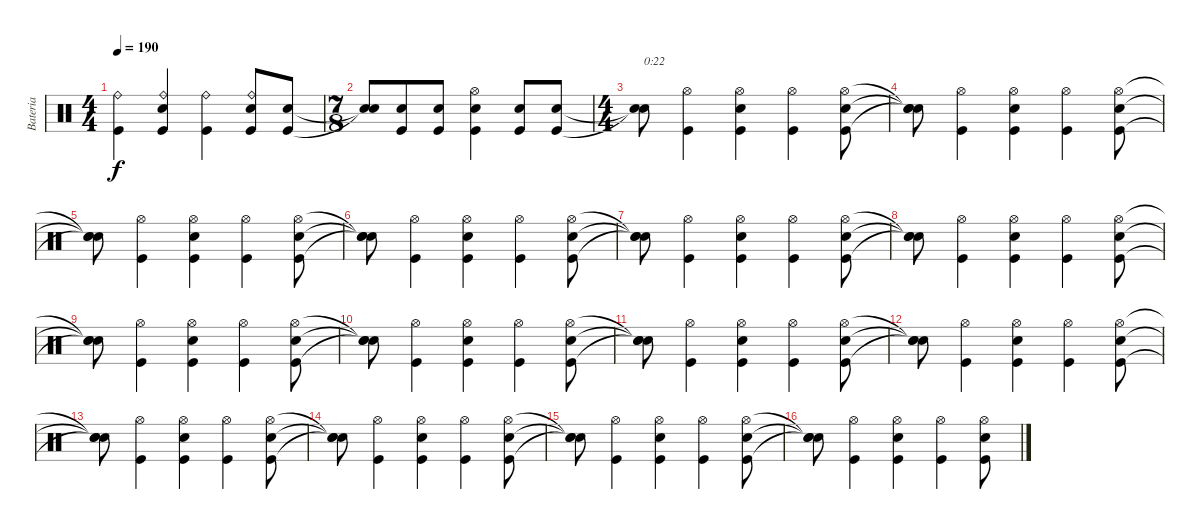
\track ("Bateria" "Bateria") {instrument percussion}
\staff {score}
\articulation defaults
\ts (4 4)
\tempo 190
\clef neutral
\ks c
("Kick (hit)" "Ride (bell)").4{dy f} ("Kick (hit)" "Snare (hit) 2" "Ride (bell)").4 ("Kick (hit)" "Ride (bell)").4 ("Kick (hit)" "Snare (hit) 2" "Ride (bell)").8 ("Kick (hit)" "Snare (hit) 2").8 |
\ts (7 8)
("Snare (hit)"{t} "Snare (hit)"{t}).8 ("Kick (hit)" "Snare (hit) 2").8 ("Kick (hit)" "Snare (hit) 2").8 ("Kick (hit)" "Snare (hit) 2" "Hi-Hat (open)").4 ("Kick (hit)" "Snare (hit) 2").8 ("Kick (hit)" "Snare (hit) 2").8 |
\ts (4 4)
("Snare (hit)"{t} "Snare (hit)"{t}).8{txt "0:22"} ("Kick (hit)" "Hi-Hat (open)").4 ("Kick (hit)" "Snare (hit) 2" "Hi-Hat (open)").4 ("Kick (hit)" "Hi-Hat (open)").4 ("Kick (hit)" "Snare (hit) 2" "Hi-Hat (open)").8 |
("Snare (hit)"{t} "Snare (hit)"{t} "Snare (hit)"{t}).8 ("Kick (hit)" "Hi-Hat (open)").4 ("Kick (hit)" "Snare (hit) 2" "Hi-Hat (open)").4 ("Kick (hit)" "Hi-Hat (open)").4 ("Kick (hit)" "Snare (hit) 2" "Hi-Hat (open)").8 |
("Snare (hit)"{t} "Snare (hit)"{t} "Snare (hit)"{t}).8 ("Kick (hit)" "Hi-Hat (open)").4 ("Kick (hit)" "Snare (hit) 2" "Hi-Hat (open)").4 ("Kick (hit)" "Hi-Hat (open)").4 ("Kick (hit)" "Snare (hit) 2" "Hi-Hat (open)").8 |
("Snare (hit)"{t} "Snare (hit)"{t} "Snare (hit)"{t}).8 ("Kick (hit)" "Hi-Hat (open)").4 ("Kick (hit)" "Snare (hit) 2" "Hi-Hat (open)").4 ("Kick (hit)" "Hi-Hat (open)").4 ("Kick (hit)" "Snare (hit) 2" "Hi-Hat (open)").8 |
("Snare (hit)"{t} "Snare (hit)"{t} "Snare (hit)"{t}).8 ("Kick (hit)" "Hi-Hat (open)").4 ("Kick (hit)" "Snare (hit) 2" "Hi-Hat (open)").4 ("Kick (hit)" "Hi-Hat (open)").4 ("Kick (hit)" "Snare (hit) 2" "Hi-Hat (open)").8 |
("Snare (hit)"{t} "Snare (hit)"{t} "Snare (hit)"{t}).8 ("Kick (hit)" "Hi-Hat (open)").4 ("Kick (hit)" "Snare (hit) 2" "Hi-Hat (open)").4 ("Kick (hit)" "Hi-Hat (open)").4 ("Kick (hit)" "Snare (hit) 2" "Hi-Hat (open)").8 |
("Snare (hit)"{t} "Snare (hit)"{t} "Snare (hit)"{t}).8 ("Kick (hit)" "Hi-Hat (open)").4 ("Kick (hit)" "Snare (hit) 2" "Hi-Hat (open)").4 ("Kick (hit)" "Hi-Hat (open)").4 ("Kick (hit)" "Snare (hit) 2" "Hi-Hat (open)").8 |
("Snare (hit)"{t} "Snare (hit)"{t} "Snare (hit)"{t}).8 ("Kick (hit)" "Hi-Hat (open)").4 ("Kick (hit)" "Snare (hit) 2" "Hi-Hat (open)").4 ("Kick (hit)" "Hi-Hat (open)").4 ("Kick (hit)" "Snare (hit) 2" "Hi-Hat (open)").8 |
("Snare (hit)"{t} "Snare (hit)"{t} "Snare (hit)"{t}).8 ("Kick (hit)" "Hi-Hat (open)").4 ("Kick (hit)" "Snare (hit) 2" "Hi-Hat (open)").4 ("Kick (hit)" "Hi-Hat (open)").4 ("Kick (hit)" "Snare (hit) 2" "Hi-Hat (open)").8 |
("Snare (hit)"{t} "Snare (hit)"{t} "Snare (hit)"{t}).8 ("Kick (hit)" "Hi-Hat (open)").4 ("Kick (hit)" "Snare (hit) 2" "Hi-Hat (open)").4 ("Kick (hit)" "Hi-Hat (open)").4 ("Kick (hit)" "Snare (hit) 2" "Hi-Hat (open)").8 |
("Snare (hit)"{t} "Snare (hit)"{t} "Snare (hit)"{t}).8 ("Kick (hit)" "Hi-Hat (open)").4 ("Kick (hit)" "Snare (hit) 2" "Hi-Hat (open)").4 ("Kick (hit)" "Hi-Hat (open)").4 ("Kick (hit)" "Snare (hit) 2" "Hi-Hat (open)").8 |
("Snare (hit)"{t} "Snare (hit)"{t} "Snare (hit)"{t}).8 ("Kick (hit)" "Hi-Hat (open)").4 ("Kick (hit)" "Snare (hit) 2" "Hi-Hat (open)").4 ("Kick (hit)" "Hi-Hat (open)").4 ("Kick (hit)" "Snare (hit) 2" "Hi-Hat (open)").8 |
("Snare (hit)"{t} "Snare (hit)"{t} "Snare (hit)"{t}).8 ("Kick (hit)" "Hi-Hat (open)").4 ("Kick (hit)" "Snare (hit) 2" "Hi-Hat (open)").4 ("Kick (hit)" "Hi-Hat (open)").4 ("Kick (hit)" "Snare (hit) 2" "Hi-Hat (open)").8 |
("Snare (hit)"{t} "Snare (hit)"{t} "Snare (hit)"{t}).8 ("Kick (hit)" "Hi-Hat (open)").4 ("Kick (hit)" "Snare (hit) 2" "Hi-Hat (open)").4 ("Kick (hit)" "Hi-Hat (open)").4 ("Kick (hit)" "Snare (hit) 2" "Hi-Hat (open)").8
